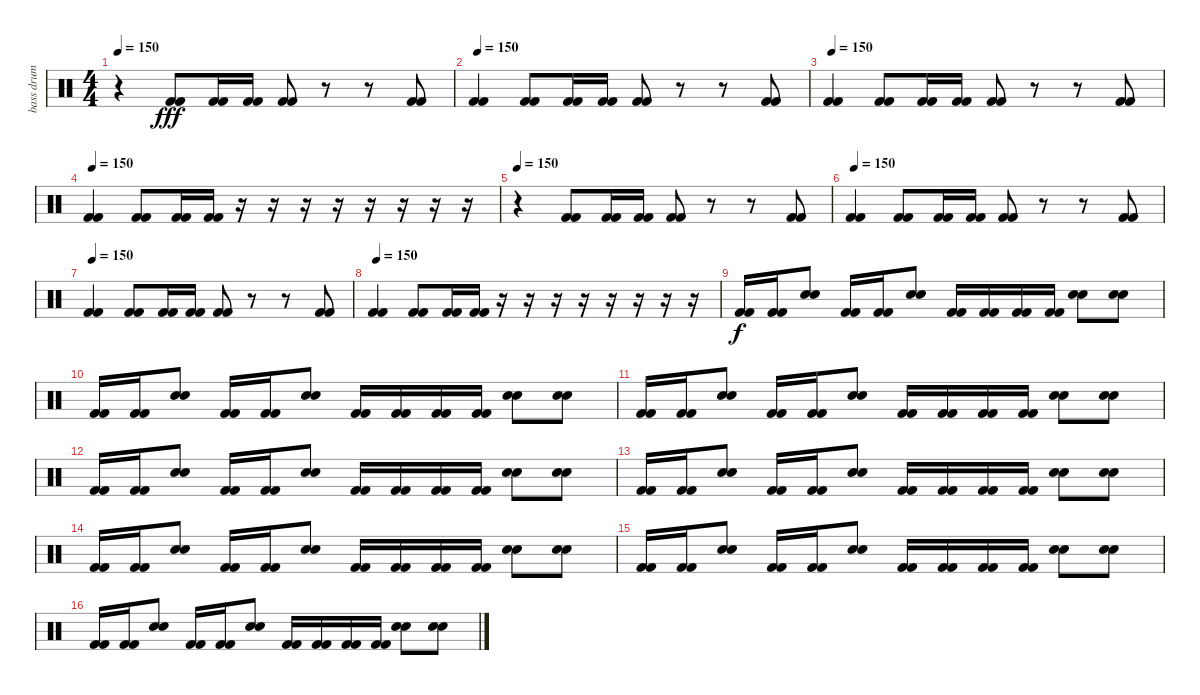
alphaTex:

\track ("bass drum" "bass drum") {instrument percussion}
\staff {score}
\articulation defaults
\ts (4 4)
\tempo 150
\clef neutral
\ks c
r.4{dy f volume 16} ("Kick (hit) 2" "Kick (hit) 2").8{dy fff} ("Kick (hit) 2" "Kick (hit) 2").16 ("Kick (hit) 2" "Kick (hit) 2").16 ("Kick (hit) 2" "Kick (hit) 2").8 r.8 r.8 ("Kick (hit) 2" "Kick (hit) 2").8 |
\tempo 150
("Kick (hit) 2" "Kick (hit) 2").4 ("Kick (hit) 2" "Kick (hit) 2").8 ("Kick (hit) 2" "Kick (hit) 2").16 ("Kick (hit) 2" "Kick (hit) 2").16 ("Kick (hit) 2" "Kick (hit) 2").8 r.8 r.8 ("Kick (hit) 2" "Kick (hit) 2").8 |
\tempo 150
("Kick (hit) 2" "Kick (hit) 2").4 ("Kick (hit) 2" "Kick (hit) 2").8 ("Kick (hit) 2" "Kick (hit) 2").16 ("Kick (hit) 2" "Kick (hit) 2").16 ("Kick (hit) 2" "Kick (hit) 2").8 r.8 r.8 ("Kick (hit) 2" "Kick (hit) 2").8 |
\tempo 150
("Kick (hit) 2" "Kick (hit) 2").4 ("Kick (hit) 2" "Kick (hit) 2").8 ("Kick (hit) 2" "Kick (hit) 2").16 ("Kick (hit) 2" "Kick (hit) 2").16 r.16 r.16 r.16 r.16 r.16 r.16 r.16 r.16 |
\tempo 150
r.4{volume 16} ("Kick (hit) 2" "Kick (hit) 2").8 ("Kick (hit) 2" "Kick (hit) 2").16 ("Kick (hit) 2" "Kick (hit) 2").16 ("Kick (hit) 2" "Kick (hit) 2").8 r.8 r.8 ("Kick (hit) 2" "Kick (hit) 2").8 |
\tempo 150
("Kick (hit) 2" "Kick (hit) 2").4 ("Kick (hit) 2" "Kick (hit) 2").8 ("Kick (hit) 2" "Kick (hit) 2").16 ("Kick (hit) 2" "Kick (hit) 2").16 ("Kick (hit) 2" "Kick (hit) 2").8 r.8 r.8 ("Kick (hit) 2" "Kick (hit) 2").8 |
\tempo 150
("Kick (hit) 2" "Kick (hit) 2").4 ("Kick (hit) 2" "Kick (hit) 2").8 ("Kick (hit) 2" "Kick (hit) 2").16 ("Kick (hit) 2" "Kick (hit) 2").16 ("Kick (hit) 2" "Kick (hit) 2").8 r.8 r.8 ("Kick (hit) 2" "Kick (hit) 2").8 |
\tempo 150
("Kick (hit) 2" "Kick (hit) 2").4 ("Kick (hit) 2" "Kick (hit) 2").8 ("Kick (hit) 2" "Kick (hit) 2").16 ("Kick (hit) 2" "Kick (hit) 2").16 r.16 r.16 r.16 r.16 r.16 r.16 r.16 r.16 |
("Kick (hit) 2" "Kick (hit) 2").16{dy f} ("Kick (hit) 2" "Kick (hit) 2").16 ("Snare (hit) 2" "Snare (hit) 2").8 ("Kick (hit) 2" "Kick (hit) 2").16 ("Kick (hit) 2" "Kick (hit) 2").16 ("Snare (hit) 2" "Snare (hit) 2").8 ("Kick (hit) 2" "Kick (hit) 2").16 ("Kick (hit) 2" "Kick (hit) 2").16 ("Kick (hit) 2" "Kick (hit) 2").16 ("Kick (hit) 2" "Kick (hit) 2").16 ("Snare (hit) 2" "Snare (hit) 2").8 ("Snare (hit) 2" "Snare (hit) 2").8 |
("Kick (hit) 2" "Kick (hit) 2").16 ("Kick (hit) 2" "Kick (hit) 2").16 ("Snare (hit) 2" "Snare (hit) 2").8 ("Kick (hit) 2" "Kick (hit) 2").16 ("Kick (hit) 2" "Kick (hit) 2").16 ("Snare (hit) 2" "Snare (hit) 2").8 ("Kick (hit) 2" "Kick (hit) 2").16 ("Kick (hit) 2" "Kick (hit) 2").16 ("Kick (hit) 2" "Kick (hit) 2").16 ("Kick (hit) 2" "Kick (hit) 2").16 ("Snare (hit) 2" "Snare (hit) 2").8 ("Snare (hit) 2" "Snare (hit) 2").8 |
("Kick (hit) 2" "Kick (hit) 2").16 ("Kick (hit) 2" "Kick (hit) 2").16 ("Snare (hit) 2" "Snare (hit) 2").8 ("Kick (hit) 2" "Kick (hit) 2").16 ("Kick (hit) 2" "Kick (hit) 2").16 ("Snare (hit) 2" "Snare (hit) 2").8 ("Kick (hit) 2" "Kick (hit) 2").16 ("Kick (hit) 2" "Kick (hit) 2").16 ("Kick (hit) 2" "Kick (hit) 2").16 ("Kick (hit) 2" "Kick (hit) 2").16 ("Snare (hit) 2" "Snare (hit) 2").8 ("Snare (hit) 2" "Snare (hit) 2").8 |
("Kick (hit) 2" "Kick (hit) 2").16 ("Kick (hit) 2" "Kick (hit) 2").16 ("Snare (hit) 2" "Snare (hit) 2").8 ("Kick (hit) 2" "Kick (hit) 2").16 ("Kick (hit) 2" "Kick (hit) 2").16 ("Snare (hit) 2" "Snare (hit) 2").8 ("Kick (hit) 2" "Kick (hit) 2").16 ("Kick (hit) 2" "Kick (hit) 2").16 ("Kick (hit) 2" "Kick (hit) 2").16 ("Kick (hit) 2" "Kick (hit) 2").16 ("Snare (hit) 2" "Snare (hit) 2").8 ("Snare (hit) 2" "Snare (hit) 2").8 |
("Kick (hit) 2" "Kick (hit) 2").16 ("Kick (hit) 2" "Kick (hit) 2").16 ("Snare (hit) 2" "Snare (hit) 2").8 ("Kick (hit) 2" "Kick (hit) 2").16 ("Kick (hit) 2" "Kick (hit) 2").16 ("Snare (hit) 2" "Snare (hit) 2").8 ("Kick (hit) 2" "Kick (hit) 2").16 ("Kick (hit) 2" "Kick (hit) 2").16 ("Kick (hit) 2" "Kick (hit) 2").16 ("Kick (hit) 2" "Kick (hit) 2").16 ("Snare (hit) 2" "Snare (hit) 2").8 ("Snare (hit) 2" "Snare (hit) 2").8 |
("Kick (hit) 2" "Kick (hit) 2").16 ("Kick (hit) 2" "Kick (hit) 2").16 ("Snare (hit) 2" "Snare (hit) 2").8 ("Kick (hit) 2" "Kick (hit) 2").16 ("Kick (hit) 2" "Kick (hit) 2").16 ("Snare (hit) 2" "Snare (hit) 2").8 ("Kick (hit) 2" "Kick (hit) 2").16 ("Kick (hit) 2" "Kick (hit) 2").16 ("Kick (hit) 2" "Kick (hit) 2").16 ("Kick (hit) 2" "Kick (hit) 2").16 ("Snare (hit) 2" "Snare (hit) 2").8 ("Snare (hit) 2" "Snare (hit) 2").8 |
("Kick (hit) 2" "Kick (hit) 2").16 ("Kick (hit) 2" "Kick (hit) 2").16 ("Snare (hit) 2" "Snare (hit) 2").8 ("Kick (hit) 2" "Kick (hit) 2").16 ("Kick (hit) 2" "Kick (hit) 2").16 ("Snare (hit) 2" "Snare (hit) 2").8 ("Kick (hit) 2" "Kick (hit) 2").16 ("Kick (hit) 2" "Kick (hit) 2").16 ("Kick (hit) 2" "Kick (hit) 2").16 ("Kick (hit) 2" "Kick (hit) 2").16 ("Snare (hit) 2" "Snare (hit) 2").8 ("Snare (hit) 2" "Snare (hit) 2").8 |
("Kick (hit) 2" "Kick (hit) 2").16 ("Kick (hit) 2" "Kick (hit) 2").16 ("Snare (hit) 2" "Snare (hit) 2").8 ("Kick (hit) 2" "Kick (hit) 2").16 ("Kick (hit) 2" "Kick (hit) 2").16 ("Snare (hit) 2" "Snare (hit) 2").8 ("Kick (hit) 2" "Kick (hit) 2").16 ("Kick (hit) 2" "Kick (hit) 2").16 ("Kick (hit) 2" "Kick (hit) 2").16 ("Kick (hit) 2" "Kick (hit) 2").16 ("Snare (hit) 2" "Snare (hit) 2").8 ("Snare (hit) 2" "Snare (hit) 2").8
